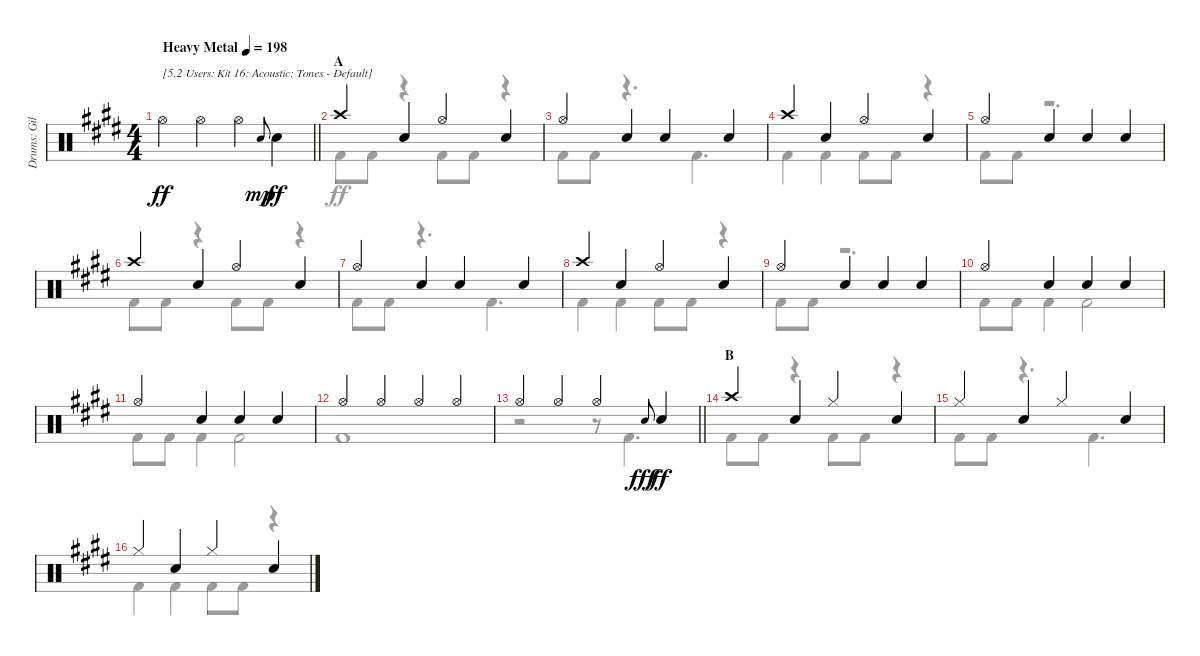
\track ("Drums: Gil" "Drums: Gil") {instrument percussion}
\staff {score}
\articulation defaults
\voice
\ts (4 4)
\tempo (198 "Heavy Metal")
\clef neutral
\barLineRight lightlight
\ks e "Hi-Hat (open)".4{txt "[5.2 Users: Kit 16: Acoustic: Tones - Default]" dy ff} "Hi-Hat (open)".4 "Hi-Hat (open)".4 "Electric Snare (hit)".8{gr onbeat dy mp} "Snare (hit) 2".4{dy ff}
|
\section ("" "A")
"Crash high (hit)".4 "Snare (hit) 2".4{beam merge} "Hi-Hat (open)".4 "Snare (hit) 2".4 |
"Hi-Hat (open)".4 "Snare (hit) 2".4{beam merge} "Snare (hit) 2".4 "Snare (hit) 2".4 |
"Crash high (hit)".4 "Snare (hit) 2".4{beam merge} "Hi-Hat (open)".4 "Snare (hit) 2".4 |
"Hi-Hat (open)".4 "Snare (hit) 2".4{beam merge} "Snare (hit) 2".4 "Snare (hit) 2".4 |
"Crash high (hit)".4 "Snare (hit) 2".4{beam merge} "Hi-Hat (open)".4 "Snare (hit) 2".4 |
"Hi-Hat (open)".4 "Snare (hit) 2".4{beam merge} "Snare (hit) 2".4 "Snare (hit) 2".4 |
"Crash high (hit)".4 "Snare (hit) 2".4{beam merge} "Hi-Hat (open)".4 "Snare (hit) 2".4 |
"Hi-Hat (open)".4 "Snare (hit) 2".4{beam merge} "Snare (hit) 2".4 "Snare (hit) 2".4 |
"Hi-Hat (open)".4 "Snare (hit) 2".4{beam merge} "Snare (hit) 2".4 "Snare (hit) 2".4 |
"Hi-Hat (open)".4 "Snare (hit) 2".4{beam merge} "Snare (hit) 2".4 "Snare (hit) 2".4 |
"Hi-Hat (open)".4 "Hi-Hat (open)".4{beam merge} "Hi-Hat (open)".4 "Hi-Hat (open)".4 |
\barLineRight lightlight "Hi-Hat (open)".4 "Hi-Hat (open)".4{beam merge} "Hi-Hat (open)".4 "Electric Snare (hit)".8{gr onbeat dy fff} "Snare (hit) 2".4{dy ff}
|
\section ("" "B")
"Crash high (hit)".4 "Snare (hit) 2".4{beam merge} "Hi-Hat (closed)".4 "Snare (hit) 2".4 |
"Hi-Hat (closed)".4 "Snare (hit) 2".4{beam merge} "Hi-Hat (closed)".4 "Snare (hit) 2".4 |
"Hi-Hat (closed)".4 "Snare (hit) 2".4{beam merge} "Hi-Hat (closed)".4 "Snare (hit) 2".4
\voice
\clef neutral
\ottava regular
\simile none
\barLineRight lightlight
\ks e
|
"Kick (hit) 2".8 "Kick (hit) 2".8 r.4 "Kick (hit) 2".8 "Kick (hit) 2".8 r.4 |
"Kick (hit) 2".8 "Kick (hit) 2".8{beam merge} r.4{d} "Kick (hit) 2".4{d} |
"Kick (hit) 2".4 "Kick (hit) 2".4 "Kick (hit) 2".8 "Kick (hit) 2".8 r.4 |
"Kick (hit) 2".8 "Kick (hit) 2".8 r.2{d} |
"Kick (hit) 2".8 "Kick (hit) 2".8 r.4 "Kick (hit) 2".8 "Kick (hit) 2".8 r.4 |
"Kick (hit) 2".8 "Kick (hit) 2".8{beam merge} r.4{d} "Kick (hit) 2".4{d} |
"Kick (hit) 2".4 "Kick (hit) 2".4 "Kick (hit) 2".8 "Kick (hit) 2".8 r.4 |
"Kick (hit) 2".8 "Kick (hit) 2".8 r.2{d} |
"Kick (hit) 2".8 "Kick (hit) 2".8 "Kick (hit) 2".4 "Kick (hit) 2".2 |
"Kick (hit) 2".8 "Kick (hit) 2".8 "Kick (hit) 2".4 "Kick (hit) 2".2 |
"Kick (hit) 2".1 |
\barLineRight lightlight
r.2 r.8 "Kick (hit) 2".4{d} |
"Kick (hit) 2".8 "Kick (hit) 2".8 r.4 "Kick (hit) 2".8 "Kick (hit) 2".8 r.4 |
"Kick (hit) 2".8 "Kick (hit) 2".8 r.4{d} "Kick (hit) 2".4{d} |
"Kick (hit) 2".4 "Kick (hit) 2".4 "Kick (hit) 2".8 "Kick (hit) 2".8 r.4
